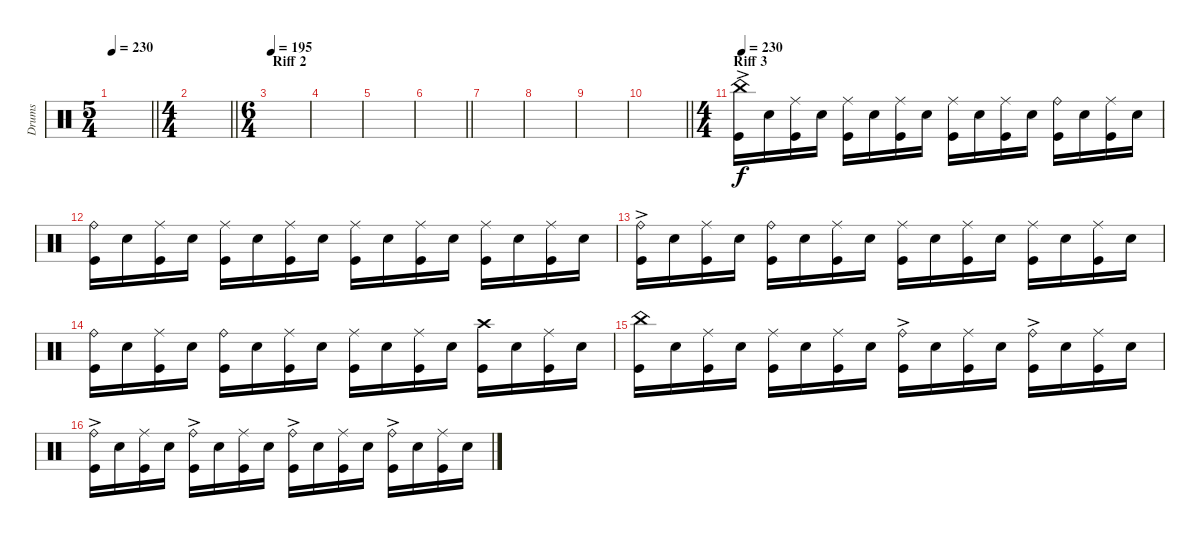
\track ("Drums" "Drums") {instrument percussion}
\staff {score}
\articulation defaults
\ts (5 4)
\tempo 230
\clef neutral
\barLineRight lightlight
\ks c
|
\ts (4 4)
\section ("" "")
\barLineRight lightlight
|
\ts (6 4)
\section ("" "Riff 2")
\tempo 195
|
|
|
\barLineRight lightlight
|
|
|
|
\barLineRight lightlight
|
\ts (4 4)
\section ("" "Riff 3")
\tempo 230
("China (hit)"{ac} "Kick (hit)").16 "Electric Snare (hit)".16 ("Ride (middle)" "Kick (hit)").16 "Electric Snare (hit)".16 ("Ride (middle)" "Kick (hit)").16 "Electric Snare (hit)".16 ("Ride (middle)" "Kick (hit)").16 "Electric Snare (hit)".16 ("Ride (middle)" "Kick (hit)").16 "Electric Snare (hit)".16 ("Ride (middle)" "Kick (hit)").16 "Electric Snare (hit)".16 ("Ride (bell)" "Kick (hit)").16 "Electric Snare (hit)".16 ("Ride (middle)" "Kick (hit)").16 "Electric Snare (hit)".16 |
("Ride (bell)" "Kick (hit)").16 "Electric Snare (hit)".16 ("Ride (middle)" "Kick (hit)").16 "Electric Snare (hit)".16 ("Ride (middle)" "Kick (hit)").16 "Electric Snare (hit)".16 ("Ride (middle)" "Kick (hit)").16 "Electric Snare (hit)".16 ("Ride (middle)" "Kick (hit)").16 "Electric Snare (hit)".16 ("Ride (middle)" "Kick (hit)").16 "Electric Snare (hit)".16 ("Ride (middle)" "Kick (hit)").16 "Electric Snare (hit)".16 ("Ride (middle)" "Kick (hit)").16 "Electric Snare (hit)".16 |
("Ride (bell)"{ac} "Kick (hit)").16 "Electric Snare (hit)".16 ("Ride (middle)" "Kick (hit)").16 "Electric Snare (hit)".16 ("Ride (bell)" "Kick (hit)").16 "Electric Snare (hit)".16 ("Ride (middle)" "Kick (hit)").16 "Electric Snare (hit)".16 ("Ride (middle)" "Kick (hit)").16 "Electric Snare (hit)".16 ("Ride (middle)" "Kick (hit)").16 "Electric Snare (hit)".16 ("Ride (middle)" "Kick (hit)").16 "Electric Snare (hit)".16 ("Ride (middle)" "Kick (hit)").16 "Electric Snare (hit)".16 |
("Ride (bell)" "Kick (hit)").16 "Electric Snare (hit)".16 ("Ride (middle)" "Kick (hit)").16 "Electric Snare (hit)".16 ("Ride (bell)" "Kick (hit)").16 "Electric Snare (hit)".16 ("Ride (middle)" "Kick (hit)").16 "Electric Snare (hit)".16 ("Ride (middle)" "Kick (hit)").16 "Electric Snare (hit)".16 ("Ride (middle)" "Kick (hit)").16 "Electric Snare (hit)".16 ("Crash high (hit)" "Kick (hit)").16 "Electric Snare (hit)".16 ("Ride (middle)" "Kick (hit)").16 "Electric Snare (hit)".16 |
("China (hit)" "Kick (hit)").16 "Electric Snare (hit)".16 ("Ride (middle)" "Kick (hit)").16 "Electric Snare (hit)".16 ("Ride (middle)" "Kick (hit)").16 "Electric Snare (hit)".16 ("Ride (middle)" "Kick (hit)").16 "Electric Snare (hit)".16 ("Ride (bell)"{ac} "Kick (hit)").16 "Electric Snare (hit)".16 ("Ride (middle)" "Kick (hit)").16 "Electric Snare (hit)".16 ("Ride (bell)"{ac} "Kick (hit)").16 "Electric Snare (hit)".16 ("Ride (middle)" "Kick (hit)").16 "Electric Snare (hit)".16 |
("Ride (bell)"{ac} "Kick (hit)").16 "Electric Snare (hit)".16 ("Ride (middle)" "Kick (hit)").16 "Electric Snare (hit)".16 ("Ride (bell)"{ac} "Kick (hit)").16 "Electric Snare (hit)".16 ("Ride (middle)" "Kick (hit)").16 "Electric Snare (hit)".16 ("Ride (bell)"{ac} "Kick (hit)").16 "Electric Snare (hit)".16 ("Ride (middle)" "Kick (hit)").16 "Electric Snare (hit)".16 ("Ride (bell)"{ac} "Kick (hit)").16 "Electric Snare (hit)".16 ("Ride (middle)" "Kick (hit)").16 "Electric Snare (hit)".16
